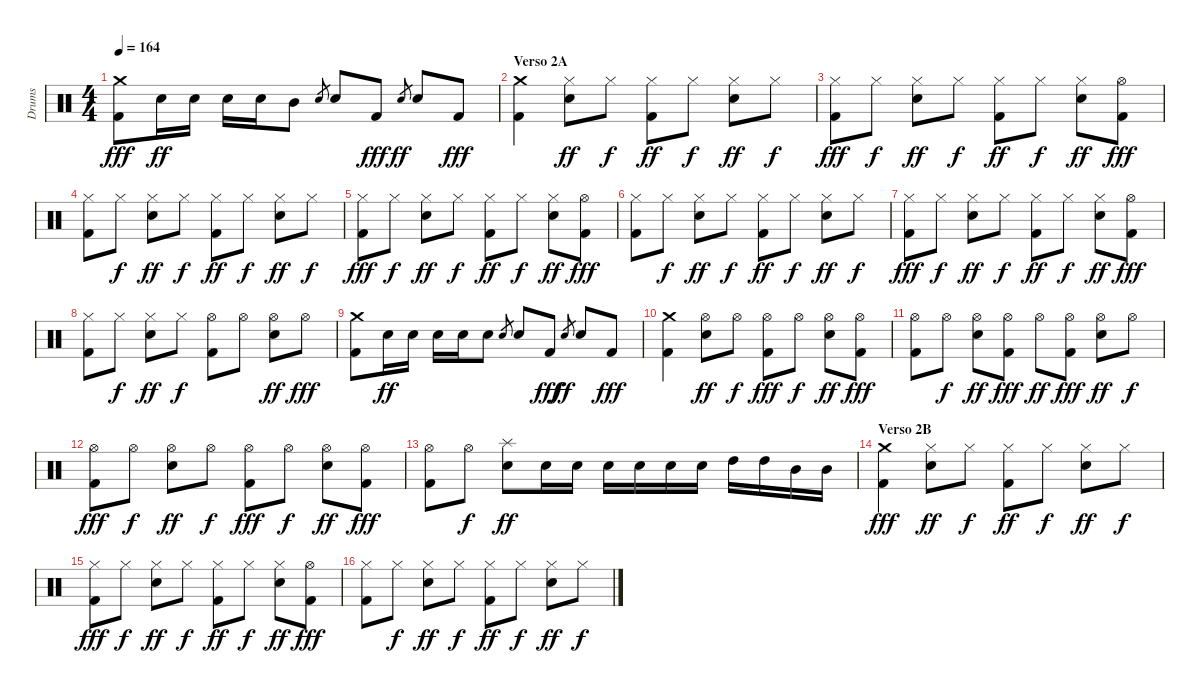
\track ("Drums" "Drums") {instrument percussion}
\staff {score}
\articulation defaults
\ts (4 4)
\tempo 164
\clef neutral
\ks c
("Crash medium (hit)" "Kick (hit) 2").8{dy fff} "Snare (hit) 2".16{dy ff} "Snare (hit) 2".16 "Snare (hit) 2".16 "Snare (hit) 2".16 "Mid Tom (hit)".8 "Snare (hit) 2".8{gr} "Snare (hit) 2".8 "Kick (hit) 2".8{dy fff} "Snare (hit) 2".8{gr dy ff} "Snare (hit) 2".8 "Kick (hit) 2".8{dy fff} |
\section ("" "Verso 2A")
("Crash medium (hit)" "Kick (hit) 2").4 ("Hi-Hat (closed)" "Snare (hit) 2").8{dy ff} "Hi-Hat (closed)".8{dy f} ("Hi-Hat (closed)" "Kick (hit) 2").8{dy ff} "Hi-Hat (closed)".8{dy f} ("Hi-Hat (closed)" "Snare (hit) 2").8{dy ff} "Hi-Hat (closed)".8{dy f} |
("Hi-Hat (closed)" "Kick (hit) 2").8{dy fff} "Hi-Hat (closed)".8{dy f} ("Hi-Hat (closed)" "Snare (hit) 2").8{dy ff} "Hi-Hat (closed)".8{dy f} ("Hi-Hat (closed)" "Kick (hit) 2").8{dy ff} "Hi-Hat (closed)".8{dy f} ("Hi-Hat (closed)" "Snare (hit) 2").8{dy ff} ("Hi-Hat (open)" "Kick (hit) 2").8{dy fff} |
("Hi-Hat (closed)" "Kick (hit) 2").8 "Hi-Hat (closed)".8{dy f} ("Hi-Hat (closed)" "Snare (hit) 2").8{dy ff} "Hi-Hat (closed)".8{dy f} ("Hi-Hat (closed)" "Kick (hit) 2").8{dy ff} "Hi-Hat (closed)".8{dy f} ("Hi-Hat (closed)" "Snare (hit) 2").8{dy ff} "Hi-Hat (closed)".8{dy f} |
("Hi-Hat (closed)" "Kick (hit) 2").8{dy fff} "Hi-Hat (closed)".8{dy f} ("Hi-Hat (closed)" "Snare (hit) 2").8{dy ff} "Hi-Hat (closed)".8{dy f} ("Hi-Hat (closed)" "Kick (hit) 2").8{dy ff} "Hi-Hat (closed)".8{dy f} ("Hi-Hat (closed)" "Snare (hit) 2").8{dy ff} ("Hi-Hat (open)" "Kick (hit) 2").8{dy fff} |
("Hi-Hat (closed)" "Kick (hit) 2").8 "Hi-Hat (closed)".8{dy f} ("Hi-Hat (closed)" "Snare (hit) 2").8{dy ff} "Hi-Hat (closed)".8{dy f} ("Hi-Hat (closed)" "Kick (hit) 2").8{dy ff} "Hi-Hat (closed)".8{dy f} ("Hi-Hat (closed)" "Snare (hit) 2").8{dy ff} "Hi-Hat (closed)".8{dy f} |
("Hi-Hat (closed)" "Kick (hit) 2").8{dy fff} "Hi-Hat (closed)".8{dy f} ("Hi-Hat (closed)" "Snare (hit) 2").8{dy ff} "Hi-Hat (closed)".8{dy f} ("Hi-Hat (closed)" "Kick (hit) 2").8{dy ff} "Hi-Hat (closed)".8{dy f} ("Hi-Hat (closed)" "Snare (hit) 2").8{dy ff} ("Hi-Hat (open)" "Kick (hit) 2").8{dy fff} |
("Hi-Hat (closed)" "Kick (hit) 2").8 "Hi-Hat (closed)".8{dy f} ("Hi-Hat (closed)" "Snare (hit) 2").8{dy ff} "Hi-Hat (closed)".8{dy f} ("Hi-Hat (open)" "Kick (hit) 2").8 "Hi-Hat (open)".8 ("Hi-Hat (open)" "Snare (hit) 2").8{dy ff} "Hi-Hat (open)".8{dy fff} |
("Crash medium (hit)" "Kick (hit) 2").8 "Snare (hit) 2".16{dy ff} "Snare (hit) 2".16 "Snare (hit) 2".16 "Snare (hit) 2".16 "Snare (hit) 2".8 "Snare (hit) 2".8{gr} "Snare (hit) 2".8 "Kick (hit) 2".8{dy fff} "Snare (hit) 2".8{gr dy ff} "Snare (hit) 2".8 "Kick (hit) 2".8{dy fff} |
("Crash medium (hit)" "Kick (hit) 2").4 ("Hi-Hat (open)" "Snare (hit) 2").8{dy ff} "Hi-Hat (open)".8{dy f} ("Hi-Hat (open)" "Kick (hit) 2").8{dy fff} "Hi-Hat (open)".8{dy f} ("Hi-Hat (open)" "Snare (hit) 2").8{dy ff} ("Hi-Hat (open)" "Kick (hit) 2").8{dy fff} |
("Hi-Hat (open)" "Kick (hit) 2").8 "Hi-Hat (open)".8{dy f} ("Hi-Hat (open)" "Snare (hit) 2").8{dy ff} ("Hi-Hat (open)" "Kick (hit) 2").8{dy fff} "Hi-Hat (open)".8{dy ff} ("Hi-Hat (open)" "Kick (hit) 2").8{dy fff} ("Hi-Hat (open)" "Snare (hit) 2").8{dy ff} "Hi-Hat (open)".8{dy f} |
("Hi-Hat (open)" "Kick (hit) 2").8{dy fff} "Hi-Hat (open)".8{dy f} ("Hi-Hat (open)" "Snare (hit) 2").8{dy ff} "Hi-Hat (open)".8{dy f} ("Hi-Hat (open)" "Kick (hit) 2").8{dy fff} "Hi-Hat (open)".8{dy f} ("Hi-Hat (open)" "Snare (hit) 2").8{dy ff} ("Hi-Hat (open)" "Kick (hit) 2").8{dy fff} |
("Hi-Hat (open)" "Kick (hit) 2").8 "Hi-Hat (open)".8{dy f} ("Splash (hit)" "Snare (hit) 2").8{dy ff} "Snare (hit) 2".16 "Snare (hit) 2".16 "Snare (hit) 2".16 "Snare (hit) 2".16 "Snare (hit) 2".16 "Snare (hit) 2".16 "High Tom (hit)".16 "High Tom (hit)".16 "Mid Tom (hit)".16 "Mid Tom (hit)".16 |
\section ("" "Verso 2B")
("Crash medium (hit)" "Kick (hit) 2").4{dy fff} ("Hi-Hat (closed)" "Snare (hit) 2").8{dy ff} "Hi-Hat (closed)".8{dy f} ("Hi-Hat (closed)" "Kick (hit) 2").8{dy ff} "Hi-Hat (closed)".8{dy f} ("Hi-Hat (closed)" "Snare (hit) 2").8{dy ff} "Hi-Hat (closed)".8{dy f} |
("Hi-Hat (closed)" "Kick (hit) 2").8{dy fff} "Hi-Hat (closed)".8{dy f} ("Hi-Hat (closed)" "Snare (hit) 2").8{dy ff} "Hi-Hat (closed)".8{dy f} ("Hi-Hat (closed)" "Kick (hit) 2").8{dy ff} "Hi-Hat (closed)".8{dy f} ("Hi-Hat (closed)" "Snare (hit) 2").8{dy ff} ("Hi-Hat (open)" "Kick (hit) 2").8{dy fff} |
("Hi-Hat (closed)" "Kick (hit) 2").8 "Hi-Hat (closed)".8{dy f} ("Hi-Hat (closed)" "Snare (hit) 2").8{dy ff} "Hi-Hat (closed)".8{dy f} ("Hi-Hat (closed)" "Kick (hit) 2").8{dy ff} "Hi-Hat (closed)".8{dy f} ("Hi-Hat (closed)" "Snare (hit) 2").8{dy ff} "Hi-Hat (closed)".8{dy f}
